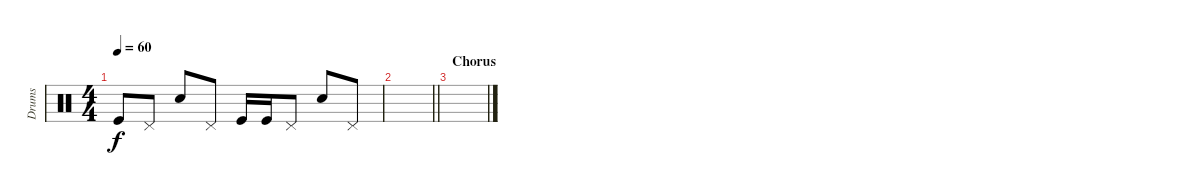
\track ("Drums" "Drums") {instrument percussion}
\staff {score}
\articulation defaults
\ts (4 4)
\tempo 60
\clef neutral
\ks c "Kick (hit)".8{dy f} "Pedal Hi-Hat (hit)".8 "Snare (hit) 2".8 "Pedal Hi-Hat (hit)".8 "Kick (hit)".16 "Kick (hit)".16 "Pedal Hi-Hat (hit)".8 "Snare (hit) 2".8 "Pedal Hi-Hat (hit)".8
|
\barLineRight lightlight
|
\section ("" "Chorus")
